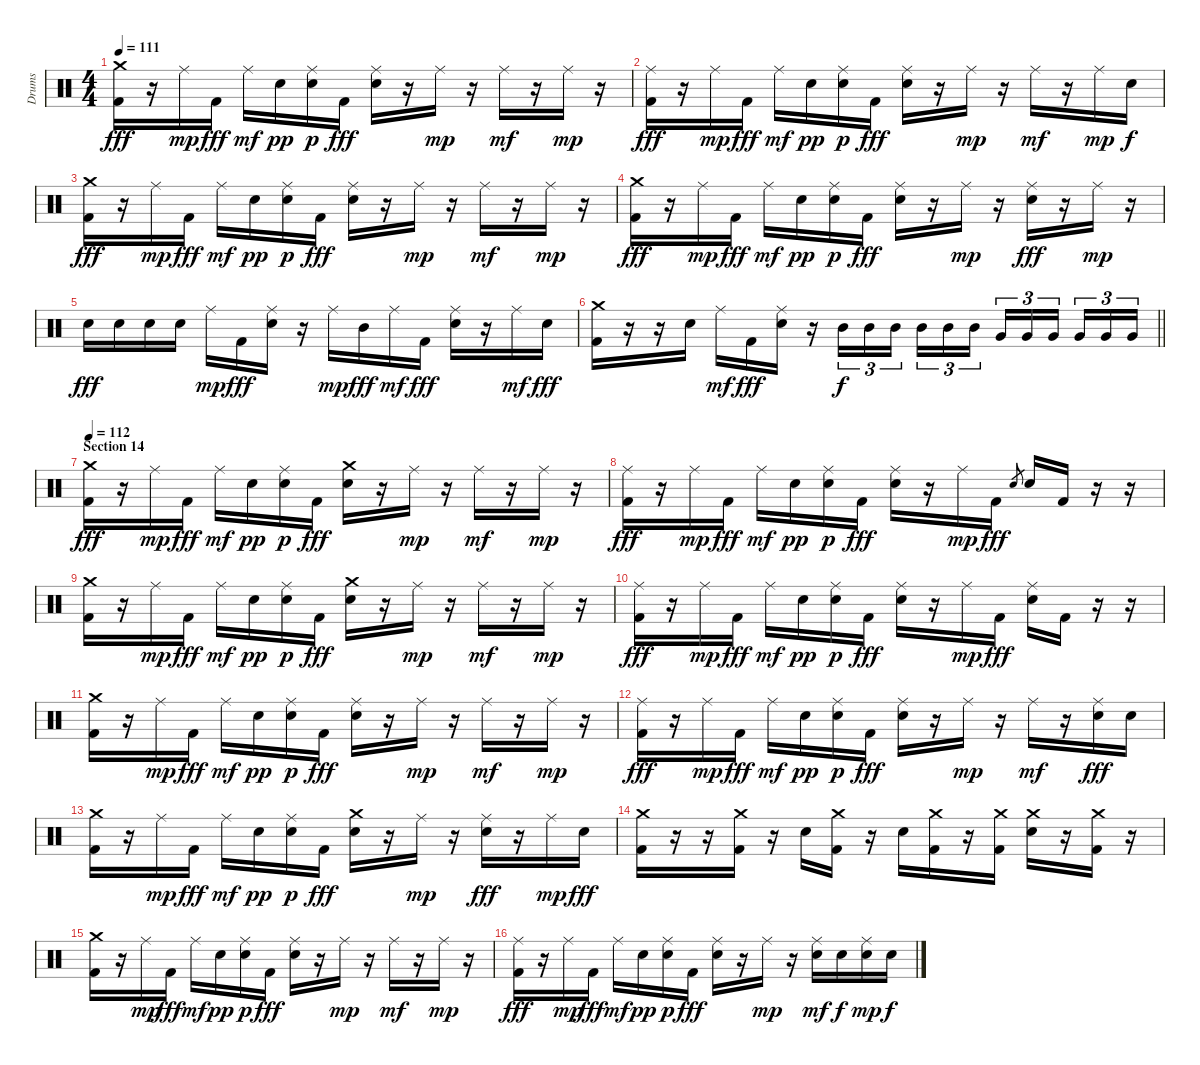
\track ("Drums" "Drums") {instrument percussion}
\staff {score}
\articulation defaults
\ts (4 4)
\tempo 111
\clef neutral
\ks c
("Crash medium (hit)" "Kick (hit) 2").16{dy fff} r.16 "Ride (middle)".16{dy mp} "Kick (hit) 2".16{dy fff} "Ride (middle)".16{dy mf} "Electric Snare (hit)".16{dy pp} ("Ride (middle)" "Electric Snare (hit)").16{dy p} "Kick (hit) 2".16{dy fff} ("Ride (middle)" "Electric Snare (hit)").16 r.16 "Ride (middle)".16{dy mp} r.16 "Ride (middle)".16{dy mf} r.16 "Ride (middle)".16{dy mp} r.16 |
("Ride (middle)" "Kick (hit) 2").16{dy fff} r.16 "Ride (middle)".16{dy mp} "Kick (hit) 2".16{dy fff} "Ride (middle)".16{dy mf} "Electric Snare (hit)".16{dy pp} ("Ride (middle)" "Electric Snare (hit)").16{dy p} "Kick (hit) 2".16{dy fff} ("Ride (middle)" "Electric Snare (hit)").16 r.16 "Ride (middle)".16{dy mp} r.16 "Ride (middle)".16{dy mf} r.16 "Ride (middle)".16{dy mp} "Electric Snare (hit)".16{dy f} |
("Crash medium (hit)" "Kick (hit) 2").16{dy fff} r.16 "Ride (middle)".16{dy mp} "Kick (hit) 2".16{dy fff} "Ride (middle)".16{dy mf} "Electric Snare (hit)".16{dy pp} ("Ride (middle)" "Electric Snare (hit)").16{dy p} "Kick (hit) 2".16{dy fff} ("Ride (middle)" "Electric Snare (hit)").16 r.16 "Ride (middle)".16{dy mp} r.16 "Ride (middle)".16{dy mf} r.16 "Ride (middle)".16{dy mp} r.16 |
("Crash medium (hit)" "Kick (hit) 2").16{dy fff} r.16 "Ride (middle)".16{dy mp} "Kick (hit) 2".16{dy fff} "Ride (middle)".16{dy mf} "Electric Snare (hit)".16{dy pp} ("Ride (middle)" "Electric Snare (hit)").16{dy p} "Kick (hit) 2".16{dy fff} ("Ride (middle)" "Electric Snare (hit)").16 r.16 "Ride (middle)".16{dy mp} r.16 ("Ride (middle)" "Electric Snare (hit)").16{dy fff} r.16 "Ride (middle)".16{dy mp} r.16 |
"Electric Snare (hit)".16{dy fff} "Electric Snare (hit)".16 "Electric Snare (hit)".16 "Electric Snare (hit)".16 "Ride (middle)".16{dy mp} "Kick (hit) 2".16{dy fff} ("Ride (middle)" "Electric Snare (hit)").16 r.16 "Ride (middle)".16{dy mp} "Mid Tom (hit)".16{dy fff} "Ride (middle)".16{dy mf} "Kick (hit) 2".16{dy fff} ("Ride (middle)" "Electric Snare (hit)").16 r.16 "Ride (middle)".16{dy mf} "Electric Snare (hit)".16{dy fff} |
\barLineRight lightlight
("Crash medium (hit)" "Kick (hit) 2").16 r.16 r.16 "Electric Snare (hit)".16 "Ride (middle)".16{dy mf} "Kick (hit) 2".16{dy fff} ("Ride (middle)" "Electric Snare (hit)").16 r.16 "Mid Tom (hit)".16{tu (3 2) dy f} "Mid Tom (hit)".16{tu (3 2)} "Mid Tom (hit)".16{tu (3 2) beam splitsecondary} "Mid Tom (hit)".16{tu (3 2)} "Mid Tom (hit)".16{tu (3 2)} "Mid Tom (hit)".16{tu (3 2)} "Very Low Tom (hit)".16{tu (3 2)} "Very Low Tom (hit)".16{tu (3 2)} "Very Low Tom (hit)".16{tu (3 2) beam splitsecondary} "Very Low Tom (hit)".16{tu (3 2)} "Very Low Tom (hit)".16{tu (3 2)} "Very Low Tom (hit)".16{tu (3 2)} |
\section ("" "Section 14")
\tempo 112
("Crash medium (hit)" "Kick (hit) 2").16{dy fff} r.16 "Ride (middle)".16{dy mp} "Kick (hit) 2".16{dy fff} "Ride (middle)".16{dy mf} "Electric Snare (hit)".16{dy pp} ("Ride (middle)" "Electric Snare (hit)").16{dy p} "Kick (hit) 2".16{dy fff} ("Crash medium (hit)" "Electric Snare (hit)").16 r.16 "Ride (middle)".16{dy mp} r.16 "Ride (middle)".16{dy mf} r.16 "Ride (middle)".16{dy mp} r.16 |
("Ride (middle)" "Kick (hit) 2").16{dy fff} r.16 "Ride (middle)".16{dy mp} "Kick (hit) 2".16{dy fff} "Ride (middle)".16{dy mf} "Electric Snare (hit)".16{dy pp} ("Ride (middle)" "Electric Snare (hit)").16{dy p} "Kick (hit) 2".16{dy fff} ("Ride (middle)" "Electric Snare (hit)").16 r.16 "Ride (middle)".16{dy mp} "Kick (hit) 2".16{dy fff} "Electric Snare (hit)".8{gr} "Electric Snare (hit)".16 "Kick (hit) 2".16 r.16 r.16 |
("Crash medium (hit)" "Kick (hit) 2").16 r.16 "Ride (middle)".16{dy mp} "Kick (hit) 2".16{dy fff} "Ride (middle)".16{dy mf} "Electric Snare (hit)".16{dy pp} ("Ride (middle)" "Electric Snare (hit)").16{dy p} "Kick (hit) 2".16{dy fff} ("Crash medium (hit)" "Electric Snare (hit)").16 r.16 "Ride (middle)".16{dy mp} r.16 "Ride (middle)".16{dy mf} r.16 "Ride (middle)".16{dy mp} r.16 |
("Ride (middle)" "Kick (hit) 2").16{dy fff} r.16 "Ride (middle)".16{dy mp} "Kick (hit) 2".16{dy fff} "Ride (middle)".16{dy mf} "Electric Snare (hit)".16{dy pp} ("Ride (middle)" "Electric Snare (hit)").16{dy p} "Kick (hit) 2".16{dy fff} ("Ride (middle)" "Electric Snare (hit)").16 r.16 "Ride (middle)".16{dy mp} "Kick (hit) 2".16{dy fff} ("Ride (middle)" "Electric Snare (hit)").16 "Kick (hit) 2".16 r.16 r.16 |
("Crash medium (hit)" "Kick (hit) 2").16 r.16 "Ride (middle)".16{dy mp} "Kick (hit) 2".16{dy fff} "Ride (middle)".16{dy mf} "Electric Snare (hit)".16{dy pp} ("Ride (middle)" "Electric Snare (hit)").16{dy p} "Kick (hit) 2".16{dy fff} ("Ride (middle)" "Electric Snare (hit)").16 r.16 "Ride (middle)".16{dy mp} r.16 "Ride (middle)".16{dy mf} r.16 "Ride (middle)".16{dy mp} r.16 |
("Ride (middle)" "Kick (hit) 2").16{dy fff} r.16 "Ride (middle)".16{dy mp} "Kick (hit) 2".16{dy fff} "Ride (middle)".16{dy mf} "Electric Snare (hit)".16{dy pp} ("Ride (middle)" "Electric Snare (hit)").16{dy p} "Kick (hit) 2".16{dy fff} ("Ride (middle)" "Electric Snare (hit)").16 r.16 "Ride (middle)".16{dy mp} r.16 "Ride (middle)".16{dy mf} r.16 ("Ride (middle)" "Electric Snare (hit)").16{dy fff} "Electric Snare (hit)".16 |
("Crash medium (hit)" "Kick (hit) 2").16 r.16 "Ride (middle)".16{dy mp} "Kick (hit) 2".16{dy fff} "Ride (middle)".16{dy mf} "Electric Snare (hit)".16{dy pp} ("Ride (middle)" "Electric Snare (hit)").16{dy p} "Kick (hit) 2".16{dy fff} ("Crash medium (hit)" "Electric Snare (hit)").16 r.16 "Ride (middle)".16{dy mp} r.16 ("Ride (middle)" "Electric Snare (hit)").16{dy fff} r.16 "Ride (middle)".16{dy mp} "Electric Snare (hit)".16{dy fff} |
("Crash medium (hit)" "Kick (hit) 2").16 r.16 r.16 ("Crash medium (hit)" "Kick (hit) 2").16 r.16 "Electric Snare (hit)".16 ("Crash medium (hit)" "Kick (hit) 2").16 r.16 "Electric Snare (hit)".16 ("Crash medium (hit)" "Kick (hit) 2").16 r.16 ("Crash medium (hit)" "Kick (hit) 2").16 ("Crash medium (hit)" "Electric Snare (hit)").16 r.16 ("Crash medium (hit)" "Kick (hit) 2").16 r.16 |
("Crash medium (hit)" "Kick (hit) 2").16 r.16 "Ride (middle)".16{dy mp} "Kick (hit) 2".16{dy fff} "Ride (middle)".16{dy mf} "Electric Snare (hit)".16{dy pp} ("Ride (middle)" "Electric Snare (hit)").16{dy p} "Kick (hit) 2".16{dy fff} ("Ride (middle)" "Electric Snare (hit)").16 r.16 "Ride (middle)".16{dy mp} r.16 "Ride (middle)".16{dy mf} r.16 "Ride (middle)".16{dy mp} r.16 |
("Ride (middle)" "Kick (hit) 2").16{dy fff} r.16 "Ride (middle)".16{dy mp} "Kick (hit) 2".16{dy fff} "Ride (middle)".16{dy mf} "Electric Snare (hit)".16{dy pp} ("Ride (middle)" "Electric Snare (hit)").16{dy p} "Kick (hit) 2".16{dy fff} ("Ride (middle)" "Electric Snare (hit)").16 r.16 "Ride (middle)".16{dy mp} r.16 ("Ride (middle)" "Electric Snare (hit)").16{dy mf} "Electric Snare (hit)".16{dy f} ("Ride (middle)" "Electric Snare (hit)").16{dy mp} "Electric Snare (hit)".16{dy f}
